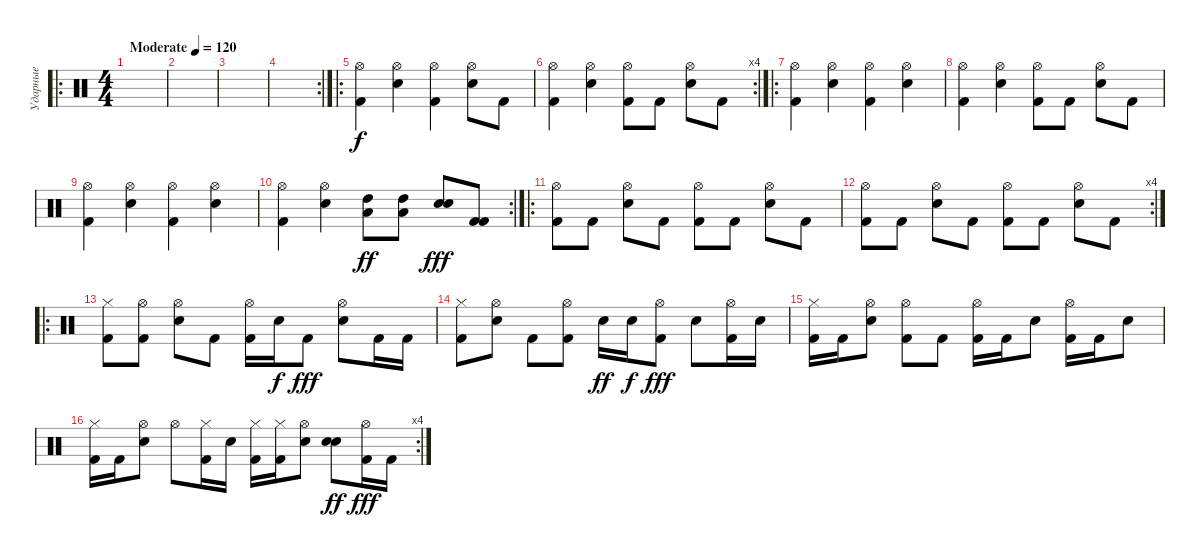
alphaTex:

\track ("Ударные" "Ударные") {instrument percussion}
\staff {score}
\articulation defaults
\ro
\ts (4 4)
\tempo (120 "Moderate")
\clef neutral
\ks c
|
|
|
\rc 2
|
\ro
("Hi-Hat (open)" "Kick (hit) 2").4 ("Hi-Hat (open)" "Electric Snare (hit)").4 ("Hi-Hat (open)" "Kick (hit) 2").4 ("Hi-Hat (open)" "Electric Snare (hit)").8 "Kick (hit) 2".8 |
\rc 4
("Hi-Hat (open)" "Kick (hit) 2").4 ("Hi-Hat (open)" "Electric Snare (hit)").4 ("Hi-Hat (open)" "Kick (hit) 2").8 "Kick (hit) 2".8 ("Hi-Hat (open)" "Electric Snare (hit)").8 "Kick (hit) 2".8 |
\ro
("Hi-Hat (open)" "Kick (hit) 2").4 ("Hi-Hat (open)" "Electric Snare (hit)").4 ("Hi-Hat (open)" "Kick (hit) 2").4 ("Hi-Hat (open)" "Electric Snare (hit)").4 |
("Hi-Hat (open)" "Kick (hit) 2").4 ("Hi-Hat (open)" "Electric Snare (hit)").4 ("Hi-Hat (open)" "Kick (hit) 2").8 "Kick (hit) 2".8 ("Hi-Hat (open)" "Electric Snare (hit)").8 "Kick (hit) 2".8 |
("Hi-Hat (open)" "Kick (hit) 2").4 ("Hi-Hat (open)" "Electric Snare (hit)").4 ("Hi-Hat (open)" "Kick (hit) 2").4 ("Hi-Hat (open)" "Electric Snare (hit)").4 |
\rc 2
("Hi-Hat (open)" "Kick (hit) 2").4 ("Hi-Hat (open)" "Electric Snare (hit)").4 ("Low Tom (hit)" "High Tom (hit)").8{bd 60 dy ff} ("Low Tom (hit)" "High Tom (hit)").8{bd 60} ("Electric Snare (hit)" "Electric Snare (hit)").8{bd 60 dy fff} ("Kick (hit) 2" "Kick (hit) 2").8{bd 60} |
\ro
("Hi-Hat (open)" "Kick (hit) 2").8 "Kick (hit) 2".8 ("Hi-Hat (open)" "Electric Snare (hit)").8 "Kick (hit) 2".8 ("Hi-Hat (open)" "Kick (hit) 2").8 "Kick (hit) 2".8 ("Hi-Hat (open)" "Electric Snare (hit)").8 "Kick (hit) 2".8 |
\rc 4
("Hi-Hat (open)" "Kick (hit) 2").8 "Kick (hit) 2".8 ("Hi-Hat (open)" "Electric Snare (hit)").8 "Kick (hit) 2".8 ("Hi-Hat (open)" "Kick (hit) 2").8 "Kick (hit) 2".8 ("Hi-Hat (open)" "Electric Snare (hit)").8 "Kick (hit) 2".8 |
\ro
("Hi-Hat (closed)" "Kick (hit) 2").8 ("Hi-Hat (open)" "Kick (hit) 2").8 ("Hi-Hat (open)" "Electric Snare (hit)").8 "Kick (hit) 2".8 ("Hi-Hat (open)" "Kick (hit) 2").16 "Electric Snare (hit)".16{dy f} "Kick (hit) 2".8{dy fff} ("Hi-Hat (open)" "Electric Snare (hit)").8 "Kick (hit) 2".16 "Kick (hit) 2".16 |
("Hi-Hat (closed)" "Kick (hit) 2").8 ("Hi-Hat (open)" "Electric Snare (hit)").8 "Kick (hit) 2".8 ("Hi-Hat (open)" "Kick (hit) 2").8 "Electric Snare (hit)".16{dy ff} "Electric Snare (hit)".16{dy f} ("Hi-Hat (open)" "Kick (hit) 2").8{dy fff} "Electric Snare (hit)".8 ("Hi-Hat (open)" "Kick (hit) 2").16 "Electric Snare (hit)".16 |
("Hi-Hat (closed)" "Kick (hit) 2").16 "Kick (hit) 2".16 ("Hi-Hat (open)" "Electric Snare (hit)").8 ("Hi-Hat (open)" "Kick (hit) 2").8 "Kick (hit) 2".8 ("Hi-Hat (open)" "Kick (hit) 2").16 "Kick (hit) 2".16 "Electric Snare (hit)".8 ("Hi-Hat (open)" "Kick (hit) 2").16 "Kick (hit) 2".16 "Electric Snare (hit)".8 |
\rc 4
("Hi-Hat (closed)" "Kick (hit) 2").16 "Kick (hit) 2".16 ("Hi-Hat (open)" "Electric Snare (hit)").8 "Hi-Hat (open)".8 ("Hi-Hat (closed)" "Kick (hit) 2").16 "Electric Snare (hit)".16 ("Hi-Hat (closed)" "Kick (hit) 2").16 ("Hi-Hat (closed)" "Kick (hit) 2").16 ("Hi-Hat (open)" "Electric Snare (hit)").8 ("Electric Snare (hit)" "Electric Snare (hit)").8{bd 60 dy ff} ("Hi-Hat (open)" "Kick (hit) 2").16{dy fff} "Kick (hit) 2".16
